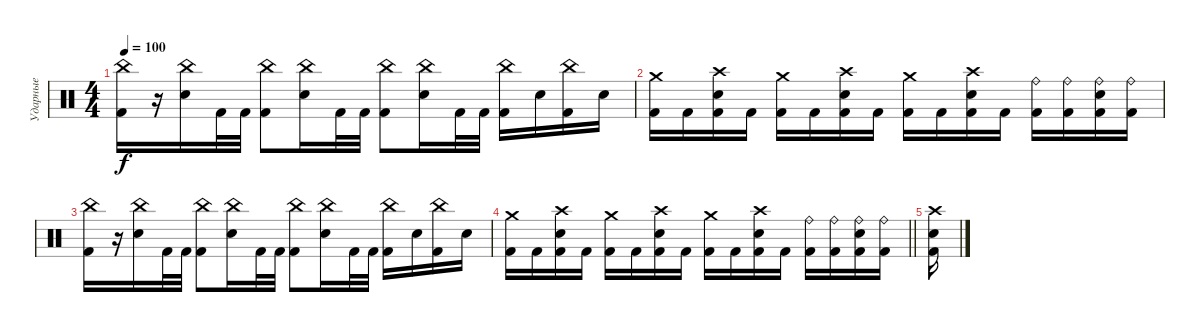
\track ("Ударные" "Ударные") {instrument percussion}
\staff {score}
\articulation defaults
\ts (4 4)
\tempo 100
\clef neutral
\ks c
("China (hit)" "Kick (hit) 2").16{dy f} r.16 ("China (hit)" "Electric Snare (hit)").16 "Kick (hit) 2".32 "Kick (hit) 2".32 ("China (hit)" "Kick (hit) 2").8 ("China (hit)" "Electric Snare (hit)").16 "Kick (hit) 2".32 "Kick (hit) 2".32 ("China (hit)" "Kick (hit) 2").8 ("China (hit)" "Electric Snare (hit)").16 "Kick (hit) 2".32 "Kick (hit) 2".32 ("China (hit)" "Kick (hit) 2").16 "Electric Snare (hit)".16 ("China (hit)" "Kick (hit) 2").16 "Electric Snare (hit)".16 |
("Crash medium (hit)" "Kick (hit) 2").16 "Kick (hit) 2".16 ("Crash high (hit)" "Electric Snare (hit)" "Kick (hit) 2").16 "Kick (hit) 2".16 ("Crash medium (hit)" "Kick (hit) 2").16 "Kick (hit) 2".16 ("Crash high (hit)" "Electric Snare (hit)" "Kick (hit) 2").16 "Kick (hit) 2".16 ("Crash medium (hit)" "Kick (hit) 2").16 "Kick (hit) 2".16 ("Crash high (hit)" "Electric Snare (hit)" "Kick (hit) 2").16 "Kick (hit) 2".16 ("Ride (bell)" "Kick (hit) 2").16 ("Ride (bell)" "Kick (hit) 2").16 ("Ride (bell)" "Electric Snare (hit)" "Kick (hit) 2").16 ("Ride (bell)" "Kick (hit) 2").16 |
("China (hit)" "Kick (hit) 2").16 r.16 ("China (hit)" "Electric Snare (hit)").16 "Kick (hit) 2".32 "Kick (hit) 2".32 ("China (hit)" "Kick (hit) 2").8 ("China (hit)" "Electric Snare (hit)").16 "Kick (hit) 2".32 "Kick (hit) 2".32 ("China (hit)" "Kick (hit) 2").8 ("China (hit)" "Electric Snare (hit)").16 "Kick (hit) 2".32 "Kick (hit) 2".32 ("China (hit)" "Kick (hit) 2").16 "Electric Snare (hit)".16 ("China (hit)" "Kick (hit) 2").16 "Electric Snare (hit)".16 |
\barLineRight lightlight
("Crash medium (hit)" "Kick (hit) 2").16 "Kick (hit) 2".16 ("Crash high (hit)" "Electric Snare (hit)" "Kick (hit) 2").16 "Kick (hit) 2".16 ("Crash medium (hit)" "Kick (hit) 2").16 "Kick (hit) 2".16 ("Crash high (hit)" "Electric Snare (hit)" "Kick (hit) 2").16 "Kick (hit) 2".16 ("Crash medium (hit)" "Kick (hit) 2").16 "Kick (hit) 2".16 ("Crash high (hit)" "Electric Snare (hit)" "Kick (hit) 2").16 "Kick (hit) 2".16 ("Ride (bell)" "Kick (hit) 2").16 ("Ride (bell)" "Kick (hit) 2").16 ("Ride (bell)" "Electric Snare (hit)" "Kick (hit) 2").16 ("Ride (bell)" "Kick (hit) 2").16 |
("Crash high (hit)" "Electric Snare (hit)" "Kick (hit) 2").16
